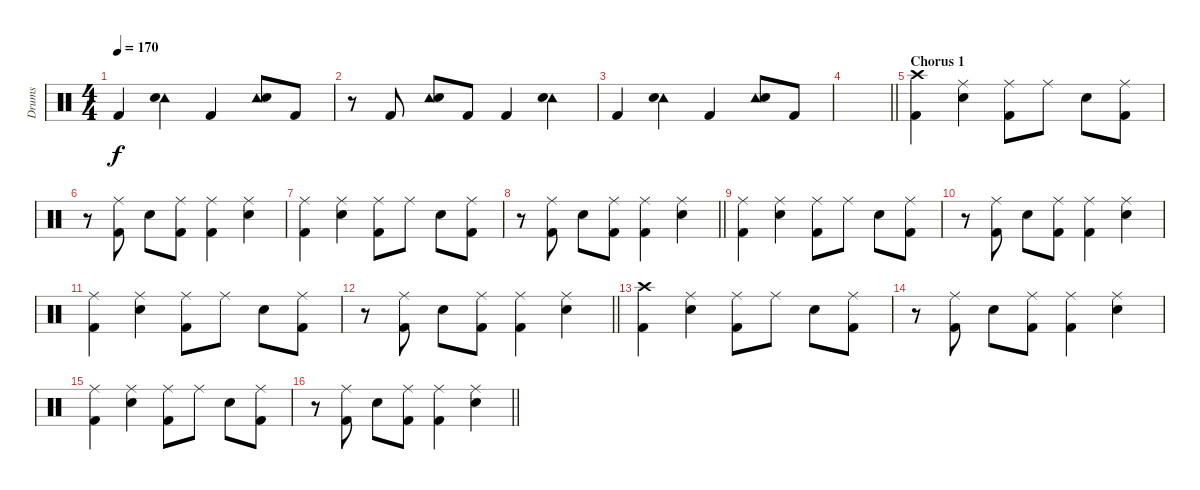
\track ("Drums" "Drums") {instrument percussion}
\staff {score}
\articulation defaults
\ts (4 4)
\tempo 170
\clef neutral
\ks c "Kick (hit) 2".4{dy f}
("Tambourine (hit)" "Electric Snare (hit)").4 "Kick (hit) 2".4 ("Tambourine (hit)" "Electric Snare (hit)").8 "Kick (hit) 2".8 |
r.8 "Kick (hit) 2".8 ("Tambourine (hit)" "Electric Snare (hit)").8 "Kick (hit) 2".8 "Kick (hit) 2".4 ("Tambourine (hit)" "Electric Snare (hit)").4 |
"Kick (hit) 2".4 ("Tambourine (hit)" "Electric Snare (hit)").4 "Kick (hit) 2".4 ("Tambourine (hit)" "Electric Snare (hit)").8 "Kick (hit) 2".8 |
\barLineRight lightlight
|
\section ("" "Chorus 1")
("Crash high (hit)" "Kick (hit) 2").4 ("Ride (middle)" "Electric Snare (hit)").4 ("Ride (middle)" "Kick (hit) 2").8 "Ride (middle)".8 "Electric Snare (hit)".8 ("Ride (middle)" "Kick (hit) 2").8 |
r.8 ("Ride (middle)" "Kick (hit) 2").8 "Electric Snare (hit)".8 ("Ride (middle)" "Kick (hit) 2").8 ("Ride (middle)" "Kick (hit) 2").4 ("Ride (middle)" "Electric Snare (hit)").4 |
("Ride (middle)" "Kick (hit) 2").4 ("Ride (middle)" "Electric Snare (hit)").4 ("Ride (middle)" "Kick (hit) 2").8 "Ride (middle)".8 "Electric Snare (hit)".8 ("Ride (middle)" "Kick (hit) 2").8 |
\barLineRight lightlight
r.8 ("Ride (middle)" "Kick (hit) 2").8 "Electric Snare (hit)".8 ("Ride (middle)" "Kick (hit) 2").8 ("Ride (middle)" "Kick (hit) 2").4 ("Ride (middle)" "Electric Snare (hit)").4 |
("Ride (middle)" "Kick (hit) 2").4 ("Ride (middle)" "Electric Snare (hit)").4 ("Ride (middle)" "Kick (hit) 2").8 "Ride (middle)".8 "Electric Snare (hit)".8 ("Ride (middle)" "Kick (hit) 2").8 |
r.8 ("Ride (middle)" "Kick (hit) 2").8 "Electric Snare (hit)".8 ("Ride (middle)" "Kick (hit) 2").8 ("Ride (middle)" "Kick (hit) 2").4 ("Ride (middle)" "Electric Snare (hit)").4 |
("Ride (middle)" "Kick (hit) 2").4 ("Ride (middle)" "Electric Snare (hit)").4 ("Ride (middle)" "Kick (hit) 2").8 "Ride (middle)".8 "Electric Snare (hit)".8 ("Ride (middle)" "Kick (hit) 2").8 |
\barLineRight lightlight
r.8 ("Ride (middle)" "Kick (hit) 2").8 "Electric Snare (hit)".8 ("Ride (middle)" "Kick (hit) 2").8 ("Ride (middle)" "Kick (hit) 2").4 ("Ride (middle)" "Electric Snare (hit)").4 |
("Crash high (hit)" "Kick (hit) 2").4 ("Ride (middle)" "Electric Snare (hit)").4 ("Ride (middle)" "Kick (hit) 2").8 "Ride (middle)".8 "Electric Snare (hit)".8 ("Ride (middle)" "Kick (hit) 2").8 |
r.8 ("Ride (middle)" "Kick (hit) 2").8 "Electric Snare (hit)".8 ("Ride (middle)" "Kick (hit) 2").8 ("Ride (middle)" "Kick (hit) 2").4 ("Ride (middle)" "Electric Snare (hit)").4 |
("Ride (middle)" "Kick (hit) 2").4 ("Ride (middle)" "Electric Snare (hit)").4 ("Ride (middle)" "Kick (hit) 2").8 "Ride (middle)".8 "Electric Snare (hit)".8 ("Ride (middle)" "Kick (hit) 2").8 |
\barLineRight lightlight
r.8 ("Ride (middle)" "Kick (hit) 2").8 "Electric Snare (hit)".8 ("Ride (middle)" "Kick (hit) 2").8 ("Ride (middle)" "Kick (hit) 2").4 ("Ride (middle)" "Electric Snare (hit)").4
